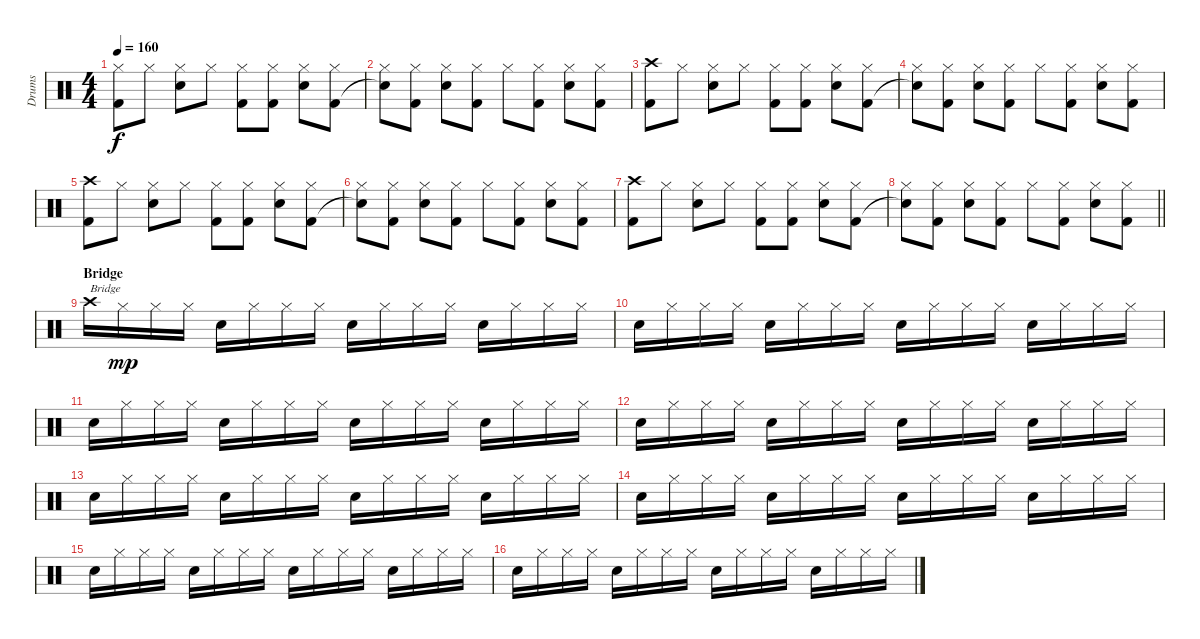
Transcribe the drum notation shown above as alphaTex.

\track ("Drums" "Drums") {instrument percussion}
\staff {score}
\articulation defaults
\ts (4 4)
\tempo 160
\clef neutral
\ks c
("Hi-Hat (closed)" "Kick (hit) 2").8{dy f} "Hi-Hat (closed)".8 ("Hi-Hat (closed)" "Electric Snare (hit)").8 "Hi-Hat (closed)".8 ("Hi-Hat (closed)" "Kick (hit) 2").8 ("Hi-Hat (closed)" "Kick (hit) 2").8 ("Hi-Hat (closed)" "Electric Snare (hit)").8 ("Hi-Hat (closed)" "Kick (hit) 2").8 |
("Hi-Hat (closed)" "Snare (hit)"{t}).8 ("Hi-Hat (closed)" "Kick (hit) 2").8 ("Hi-Hat (closed)" "Electric Snare (hit)").8 ("Hi-Hat (closed)" "Kick (hit) 2").8 "Hi-Hat (closed)".8 ("Hi-Hat (closed)" "Kick (hit) 2").8 ("Hi-Hat (closed)" "Electric Snare (hit)").8 ("Hi-Hat (closed)" "Kick (hit) 2").8 |
("Crash high (hit)" "Kick (hit) 2").8 "Hi-Hat (closed)".8 ("Hi-Hat (closed)" "Electric Snare (hit)").8 "Hi-Hat (closed)".8 ("Hi-Hat (closed)" "Kick (hit) 2").8 ("Hi-Hat (closed)" "Kick (hit) 2").8 ("Hi-Hat (closed)" "Electric Snare (hit)").8 ("Hi-Hat (closed)" "Kick (hit) 2").8 |
("Hi-Hat (closed)" "Snare (hit)"{t}).8 ("Hi-Hat (closed)" "Kick (hit) 2").8 ("Hi-Hat (closed)" "Electric Snare (hit)").8 ("Hi-Hat (closed)" "Kick (hit) 2").8 "Hi-Hat (closed)".8 ("Hi-Hat (closed)" "Kick (hit) 2").8 ("Hi-Hat (closed)" "Electric Snare (hit)").8 ("Hi-Hat (closed)" "Kick (hit) 2").8 |
("Crash high (hit)" "Kick (hit) 2").8 "Hi-Hat (closed)".8 ("Hi-Hat (closed)" "Electric Snare (hit)").8 "Hi-Hat (closed)".8 ("Hi-Hat (closed)" "Kick (hit) 2").8 ("Hi-Hat (closed)" "Kick (hit) 2").8 ("Hi-Hat (closed)" "Electric Snare (hit)").8 ("Hi-Hat (closed)" "Kick (hit) 2").8 |
("Hi-Hat (closed)" "Snare (hit)"{t}).8 ("Hi-Hat (closed)" "Kick (hit) 2").8 ("Hi-Hat (closed)" "Electric Snare (hit)").8 ("Hi-Hat (closed)" "Kick (hit) 2").8 "Hi-Hat (closed)".8 ("Hi-Hat (closed)" "Kick (hit) 2").8 ("Hi-Hat (closed)" "Electric Snare (hit)").8 ("Hi-Hat (closed)" "Kick (hit) 2").8 |
("Crash high (hit)" "Kick (hit) 2").8 "Hi-Hat (closed)".8 ("Hi-Hat (closed)" "Electric Snare (hit)").8 "Hi-Hat (closed)".8 ("Hi-Hat (closed)" "Kick (hit) 2").8 ("Hi-Hat (closed)" "Kick (hit) 2").8 ("Hi-Hat (closed)" "Electric Snare (hit)").8 ("Hi-Hat (closed)" "Kick (hit) 2").8 |
\barLineRight lightlight
("Hi-Hat (closed)" "Snare (hit)"{t}).8 ("Hi-Hat (closed)" "Kick (hit) 2").8 ("Hi-Hat (closed)" "Electric Snare (hit)").8 ("Hi-Hat (closed)" "Kick (hit) 2").8 "Hi-Hat (closed)".8 ("Hi-Hat (closed)" "Kick (hit) 2").8 ("Hi-Hat (closed)" "Electric Snare (hit)").8 ("Hi-Hat (closed)" "Kick (hit) 2").8 |
\section ("" "Bridge")
"Crash high (hit)".16{txt "Bridge"} "Hi-Hat (closed)".16{dy mp} "Hi-Hat (closed)".16 "Hi-Hat (closed)".16 "Electric Snare (hit)".16 "Hi-Hat (closed)".16 "Hi-Hat (closed)".16 "Hi-Hat (closed)".16 "Electric Snare (hit)".16 "Hi-Hat (closed)".16 "Hi-Hat (closed)".16 "Hi-Hat (closed)".16 "Electric Snare (hit)".16 "Hi-Hat (closed)".16 "Hi-Hat (closed)".16 "Hi-Hat (closed)".16 |
"Electric Snare (hit)".16 "Hi-Hat (closed)".16 "Hi-Hat (closed)".16 "Hi-Hat (closed)".16 "Electric Snare (hit)".16 "Hi-Hat (closed)".16 "Hi-Hat (closed)".16 "Hi-Hat (closed)".16 "Electric Snare (hit)".16 "Hi-Hat (closed)".16 "Hi-Hat (closed)".16 "Hi-Hat (closed)".16 "Electric Snare (hit)".16 "Hi-Hat (closed)".16 "Hi-Hat (closed)".16 "Hi-Hat (closed)".16 |
"Electric Snare (hit)".16 "Hi-Hat (closed)".16 "Hi-Hat (closed)".16 "Hi-Hat (closed)".16 "Electric Snare (hit)".16 "Hi-Hat (closed)".16 "Hi-Hat (closed)".16 "Hi-Hat (closed)".16 "Electric Snare (hit)".16 "Hi-Hat (closed)".16 "Hi-Hat (closed)".16 "Hi-Hat (closed)".16 "Electric Snare (hit)".16 "Hi-Hat (closed)".16 "Hi-Hat (closed)".16 "Hi-Hat (closed)".16 |
"Electric Snare (hit)".16 "Hi-Hat (closed)".16 "Hi-Hat (closed)".16 "Hi-Hat (closed)".16 "Electric Snare (hit)".16 "Hi-Hat (closed)".16 "Hi-Hat (closed)".16 "Hi-Hat (closed)".16 "Electric Snare (hit)".16 "Hi-Hat (closed)".16 "Hi-Hat (closed)".16 "Hi-Hat (closed)".16 "Electric Snare (hit)".16 "Hi-Hat (closed)".16 "Hi-Hat (closed)".16 "Hi-Hat (closed)".16 |
"Electric Snare (hit)".16 "Hi-Hat (closed)".16 "Hi-Hat (closed)".16 "Hi-Hat (closed)".16 "Electric Snare (hit)".16 "Hi-Hat (closed)".16 "Hi-Hat (closed)".16 "Hi-Hat (closed)".16 "Electric Snare (hit)".16 "Hi-Hat (closed)".16 "Hi-Hat (closed)".16 "Hi-Hat (closed)".16 "Electric Snare (hit)".16 "Hi-Hat (closed)".16 "Hi-Hat (closed)".16 "Hi-Hat (closed)".16 |
"Electric Snare (hit)".16 "Hi-Hat (closed)".16 "Hi-Hat (closed)".16 "Hi-Hat (closed)".16 "Electric Snare (hit)".16 "Hi-Hat (closed)".16 "Hi-Hat (closed)".16 "Hi-Hat (closed)".16 "Electric Snare (hit)".16 "Hi-Hat (closed)".16 "Hi-Hat (closed)".16 "Hi-Hat (closed)".16 "Electric Snare (hit)".16 "Hi-Hat (closed)".16 "Hi-Hat (closed)".16 "Hi-Hat (closed)".16 |
"Electric Snare (hit)".16 "Hi-Hat (closed)".16 "Hi-Hat (closed)".16 "Hi-Hat (closed)".16 "Electric Snare (hit)".16 "Hi-Hat (closed)".16 "Hi-Hat (closed)".16 "Hi-Hat (closed)".16 "Electric Snare (hit)".16 "Hi-Hat (closed)".16 "Hi-Hat (closed)".16 "Hi-Hat (closed)".16 "Electric Snare (hit)".16 "Hi-Hat (closed)".16 "Hi-Hat (closed)".16 "Hi-Hat (closed)".16 |
"Electric Snare (hit)".16 "Hi-Hat (closed)".16 "Hi-Hat (closed)".16 "Hi-Hat (closed)".16 "Electric Snare (hit)".16 "Hi-Hat (closed)".16 "Hi-Hat (closed)".16 "Hi-Hat (closed)".16 "Electric Snare (hit)".16 "Hi-Hat (closed)".16 "Hi-Hat (closed)".16 "Hi-Hat (closed)".16 "Electric Snare (hit)".16 "Hi-Hat (closed)".16 "Hi-Hat (closed)".16 "Hi-Hat (closed)".16
